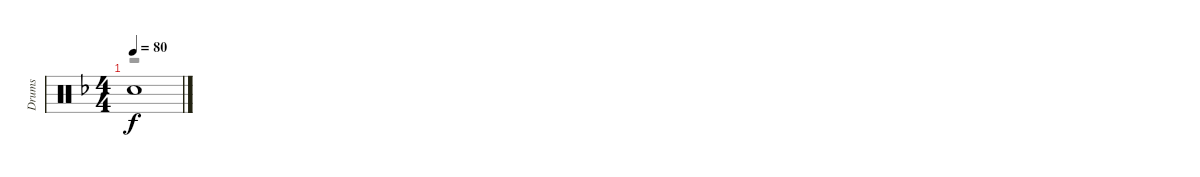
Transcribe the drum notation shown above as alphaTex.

\track ("Drums" "Drums") {instrument percussion}
\staff {score}
\articulation defaults
\voice
\ts (4 4)
\tempo 80
\clef neutral
\ks f "Snare (hit)"{t}.1{dy f}
\voice
\clef neutral
\ks f
r.1{dy fff}
